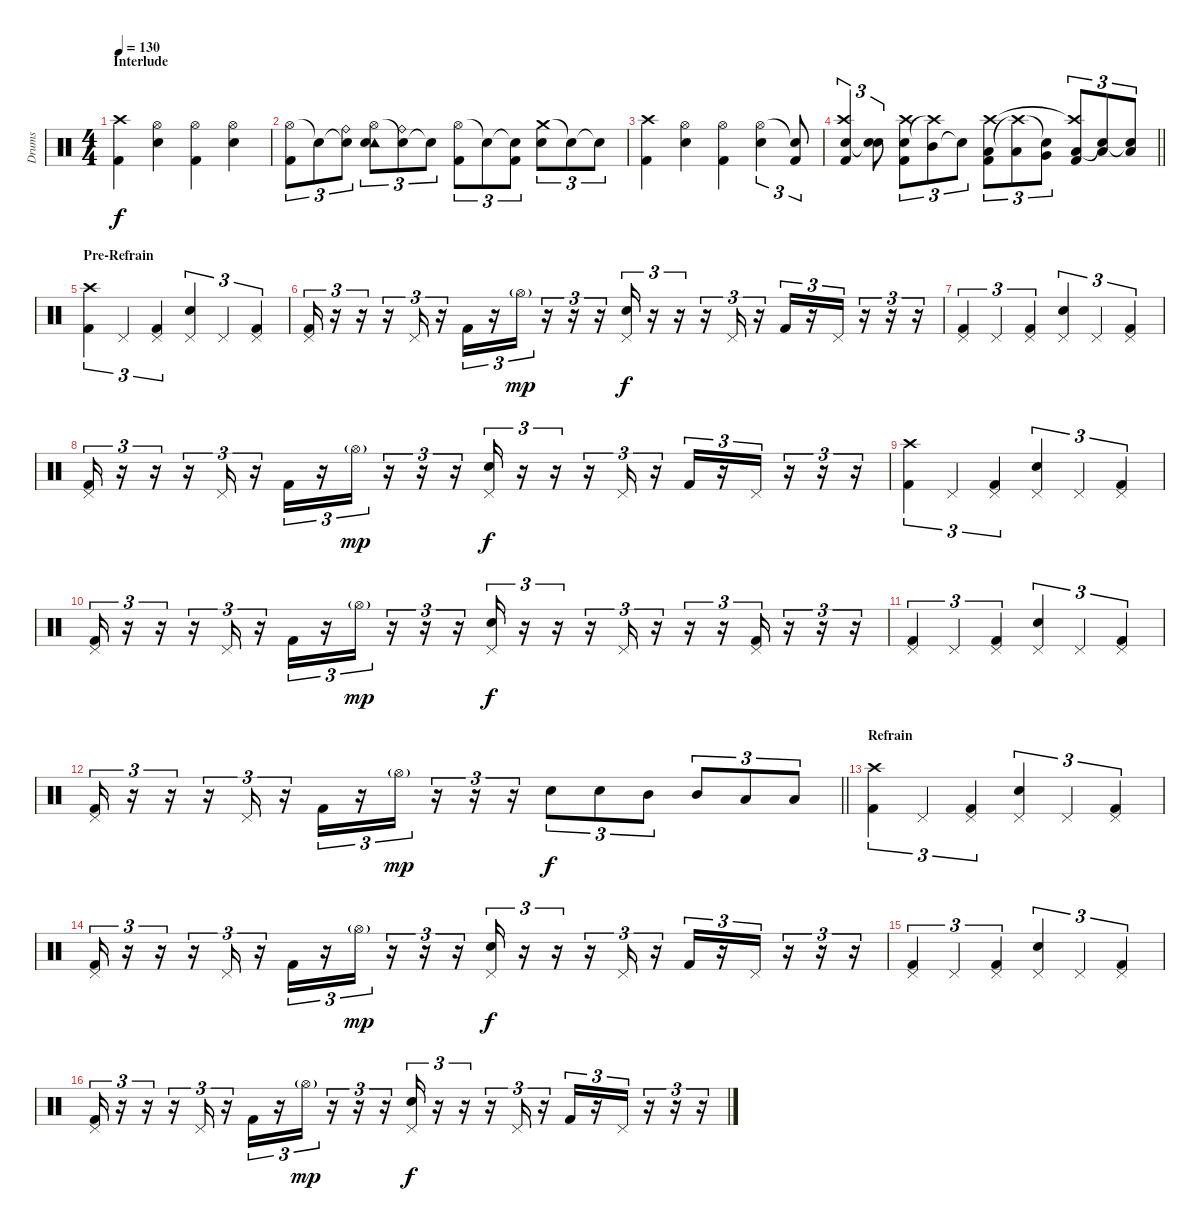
\track ("Drums" "Drums") {instrument percussion}
\staff {score}
\articulation defaults
\ts (4 4)
\section ("" "Interlude")
\tempo 130
\clef neutral
\ks c
("Kick (hit) 2" "Crash high (hit)").4{dy f} ("Snare (hit) 2" "Hi-Hat (open)").4 ("Kick (hit) 2" "Hi-Hat (open)").4 ("Snare (hit) 2" "Hi-Hat (open)").4 |
("Hi-Hat (open)" "Kick (hit) 2").8{tu (3 2)} "Snare (hit)"{t}.8{tu (3 2)} ("Snare (hit)"{t} "Ride (bell)").8{tu (3 2)} ("Hi-Hat (open)" "Tambourine (hit)" "Snare (hit) 2").8{tu (3 2)} ("Snare (hit)"{t} "Ride (bell)").8{tu (3 2)} "Snare (hit)"{t}.8{tu (3 2)} ("Hi-Hat (open)" "Kick (hit) 2").8{tu (3 2)} "Snare (hit)"{t}.8{tu (3 2)} ("Snare (hit)"{t} "Kick (hit) 2").8{tu (3 2)} ("Crash medium (hit)" "Snare (hit) 2").8{tu (3 2)} "Snare (hit)"{t}.8{tu (3 2)} "Snare (hit)"{t}.8{tu (3 2)} |
("Kick (hit) 2" "Crash high (hit)").4 ("Snare (hit) 2" "Hi-Hat (open)").4 ("Kick (hit) 2" "Hi-Hat (open)").4 ("Snare (hit) 2" "Hi-Hat (open)").4{tu (3 2)} ("Kick (hit) 2" "Snare (hit)"{t}).8{tu (3 2)} |
\barLineRight lightlight
("Kick (hit) 2" "Electric Snare (hit)" "Crash high (hit)").4{tu (3 2)} ("Electric Snare (hit)" "Snare (hit)"{t}).8{tu (3 2)} ("Kick (hit) 2" "Electric Snare (hit)" "Crash high (hit)").8{tu (3 2)} ("Mid Tom (hit)" "Crash high (hit)"{t}).8{tu (3 2)} "Snare (hit)"{t}.8{tu (3 2)} ("Kick (hit) 2" "Low Tom (hit)" "Crash high (hit)").8{tu (3 2)} ("Low Tom (hit)" "Crash high (hit)"{t}).8{tu (3 2)} ("Very Low Tom (hit)" "Snare (hit)"{t}).8{tu (3 2)} ("Kick (hit) 2" "Low Floor Tom (hit)" "Crash high (hit)"{t}).8{tu (3 2)} ("Low Floor Tom (hit)" "Snare (hit)"{t}).8{tu (3 2)} ("Low Floor Tom (hit)" "Snare (hit)"{t}).8{tu (3 2)} |
\section ("" "Pre-Refrain")
("Crash high (hit)" "Kick (hit) 2").4{tu (3 2)} "Pedal Hi-Hat (hit)".4{tu (3 2)} ("Pedal Hi-Hat (hit)" "Kick (hit) 2").4{tu (3 2)} ("Pedal Hi-Hat (hit)" "Snare (hit) 2").4{tu (3 2)} "Pedal Hi-Hat (hit)".4{tu (3 2)} ("Pedal Hi-Hat (hit)" "Kick (hit) 2").4{tu (3 2)} |
("Pedal Hi-Hat (hit)" "Kick (hit) 2").16{tu (3 2)} r.16{tu (3 2)} r.16{tu (3 2)} r.16{tu (3 2)} "Pedal Hi-Hat (hit)".16{tu (3 2)} r.16{tu (3 2)} "Kick (hit) 2".16{tu (3 2)} r.16{tu (3 2)} "Hi-Hat (open)"{g}.16{tu (3 2) dy mp} r.16{tu (3 2)} r.16{tu (3 2)} r.16{tu (3 2)} ("Pedal Hi-Hat (hit)" "Snare (hit) 2").16{tu (3 2) dy f} r.16{tu (3 2)} r.16{tu (3 2)} r.16{tu (3 2)} "Pedal Hi-Hat (hit)".16{tu (3 2)} r.16{tu (3 2)} "Kick (hit) 2".16{tu (3 2)} r.16{tu (3 2)} "Pedal Hi-Hat (hit)".16{tu (3 2)} r.16{tu (3 2)} r.16{tu (3 2)} r.16{tu (3 2)} |
("Pedal Hi-Hat (hit)" "Kick (hit) 2").4{tu (3 2)} "Pedal Hi-Hat (hit)".4{tu (3 2)} ("Pedal Hi-Hat (hit)" "Kick (hit) 2").4{tu (3 2)} ("Pedal Hi-Hat (hit)" "Snare (hit) 2").4{tu (3 2)} "Pedal Hi-Hat (hit)".4{tu (3 2)} ("Pedal Hi-Hat (hit)" "Kick (hit) 2").4{tu (3 2)} |
("Pedal Hi-Hat (hit)" "Kick (hit) 2").16{tu (3 2)} r.16{tu (3 2)} r.16{tu (3 2)} r.16{tu (3 2)} "Pedal Hi-Hat (hit)".16{tu (3 2)} r.16{tu (3 2)} "Kick (hit) 2".16{tu (3 2)} r.16{tu (3 2)} "Hi-Hat (open)"{g}.16{tu (3 2) dy mp} r.16{tu (3 2)} r.16{tu (3 2)} r.16{tu (3 2)} ("Pedal Hi-Hat (hit)" "Snare (hit) 2").16{tu (3 2) dy f} r.16{tu (3 2)} r.16{tu (3 2)} r.16{tu (3 2)} "Pedal Hi-Hat (hit)".16{tu (3 2)} r.16{tu (3 2)} "Kick (hit) 2".16{tu (3 2)} r.16{tu (3 2)} "Pedal Hi-Hat (hit)".16{tu (3 2)} r.16{tu (3 2)} r.16{tu (3 2)} r.16{tu (3 2)} |
("Crash high (hit)" "Kick (hit) 2").4{tu (3 2)} "Pedal Hi-Hat (hit)".4{tu (3 2)} ("Pedal Hi-Hat (hit)" "Kick (hit) 2").4{tu (3 2)} ("Pedal Hi-Hat (hit)" "Snare (hit) 2").4{tu (3 2)} "Pedal Hi-Hat (hit)".4{tu (3 2)} ("Pedal Hi-Hat (hit)" "Kick (hit) 2").4{tu (3 2)} |
("Pedal Hi-Hat (hit)" "Kick (hit) 2").16{tu (3 2)} r.16{tu (3 2)} r.16{tu (3 2)} r.16{tu (3 2)} "Pedal Hi-Hat (hit)".16{tu (3 2)} r.16{tu (3 2)} "Kick (hit) 2".16{tu (3 2)} r.16{tu (3 2)} "Hi-Hat (open)"{g}.16{tu (3 2) dy mp} r.16{tu (3 2)} r.16{tu (3 2)} r.16{tu (3 2)} ("Pedal Hi-Hat (hit)" "Snare (hit) 2").16{tu (3 2) dy f} r.16{tu (3 2)} r.16{tu (3 2)} r.16{tu (3 2)} "Pedal Hi-Hat (hit)".16{tu (3 2)} r.16{tu (3 2)} r.16{tu (3 2)} r.16{tu (3 2)} ("Pedal Hi-Hat (hit)" "Kick (hit) 2").16{tu (3 2)} r.16{tu (3 2)} r.16{tu (3 2)} r.16{tu (3 2)} |
("Pedal Hi-Hat (hit)" "Kick (hit) 2").4{tu (3 2)} "Pedal Hi-Hat (hit)".4{tu (3 2)} ("Pedal Hi-Hat (hit)" "Kick (hit) 2").4{tu (3 2)} ("Pedal Hi-Hat (hit)" "Snare (hit) 2").4{tu (3 2)} "Pedal Hi-Hat (hit)".4{tu (3 2)} ("Pedal Hi-Hat (hit)" "Kick (hit) 2").4{tu (3 2)} |
\barLineRight lightlight
("Pedal Hi-Hat (hit)" "Kick (hit) 2").16{tu (3 2)} r.16{tu (3 2)} r.16{tu (3 2)} r.16{tu (3 2)} "Pedal Hi-Hat (hit)".16{tu (3 2)} r.16{tu (3 2)} "Kick (hit) 2".16{tu (3 2)} r.16{tu (3 2)} "Hi-Hat (open)"{g}.16{tu (3 2) dy mp} r.16{tu (3 2)} r.16{tu (3 2)} r.16{tu (3 2)} "Snare (hit) 2".8{tu (3 2) dy f} "Snare (hit) 2".8{tu (3 2)} "Mid Tom (hit)".8{tu (3 2)} "Mid Tom (hit)".8{tu (3 2)} "Low Tom (hit)".8{tu (3 2)} "Low Tom (hit)".8{tu (3 2)} |
\section ("" "Refrain")
("Crash high (hit)" "Kick (hit) 2").4{tu (3 2)} "Pedal Hi-Hat (hit)".4{tu (3 2)} ("Pedal Hi-Hat (hit)" "Kick (hit) 2").4{tu (3 2)} ("Pedal Hi-Hat (hit)" "Snare (hit) 2").4{tu (3 2)} "Pedal Hi-Hat (hit)".4{tu (3 2)} ("Pedal Hi-Hat (hit)" "Kick (hit) 2").4{tu (3 2)} |
("Pedal Hi-Hat (hit)" "Kick (hit) 2").16{tu (3 2)} r.16{tu (3 2)} r.16{tu (3 2)} r.16{tu (3 2)} "Pedal Hi-Hat (hit)".16{tu (3 2)} r.16{tu (3 2)} "Kick (hit) 2".16{tu (3 2)} r.16{tu (3 2)} "Hi-Hat (open)"{g}.16{tu (3 2) dy mp} r.16{tu (3 2)} r.16{tu (3 2)} r.16{tu (3 2)} ("Pedal Hi-Hat (hit)" "Snare (hit) 2").16{tu (3 2) dy f} r.16{tu (3 2)} r.16{tu (3 2)} r.16{tu (3 2)} "Pedal Hi-Hat (hit)".16{tu (3 2)} r.16{tu (3 2)} "Kick (hit) 2".16{tu (3 2)} r.16{tu (3 2)} "Pedal Hi-Hat (hit)".16{tu (3 2)} r.16{tu (3 2)} r.16{tu (3 2)} r.16{tu (3 2)} |
("Pedal Hi-Hat (hit)" "Kick (hit) 2").4{tu (3 2)} "Pedal Hi-Hat (hit)".4{tu (3 2)} ("Pedal Hi-Hat (hit)" "Kick (hit) 2").4{tu (3 2)} ("Pedal Hi-Hat (hit)" "Snare (hit) 2").4{tu (3 2)} "Pedal Hi-Hat (hit)".4{tu (3 2)} ("Pedal Hi-Hat (hit)" "Kick (hit) 2").4{tu (3 2)} |
("Pedal Hi-Hat (hit)" "Kick (hit) 2").16{tu (3 2)} r.16{tu (3 2)} r.16{tu (3 2)} r.16{tu (3 2)} "Pedal Hi-Hat (hit)".16{tu (3 2)} r.16{tu (3 2)} "Kick (hit) 2".16{tu (3 2)} r.16{tu (3 2)} "Hi-Hat (open)"{g}.16{tu (3 2) dy mp} r.16{tu (3 2)} r.16{tu (3 2)} r.16{tu (3 2)} ("Pedal Hi-Hat (hit)" "Snare (hit) 2").16{tu (3 2) dy f} r.16{tu (3 2)} r.16{tu (3 2)} r.16{tu (3 2)} "Pedal Hi-Hat (hit)".16{tu (3 2)} r.16{tu (3 2)} "Kick (hit) 2".16{tu (3 2)} r.16{tu (3 2)} "Pedal Hi-Hat (hit)".16{tu (3 2)} r.16{tu (3 2)} r.16{tu (3 2)} r.16{tu (3 2)}
